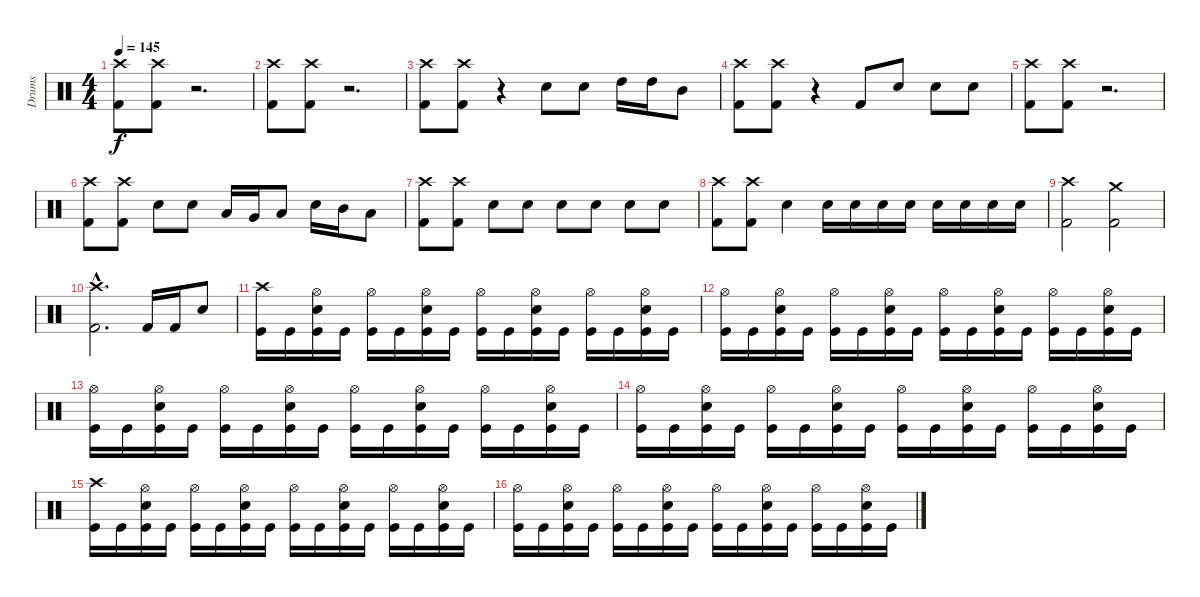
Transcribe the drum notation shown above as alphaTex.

\track ("Drums" "Drums") {instrument percussion}
\staff {score}
\articulation defaults
\ts (4 4)
\tempo 145
\clef neutral
\ks c
("Crash high (hit)" "Kick (hit) 2").8{dy f} ("Crash high (hit)" "Kick (hit) 2").8 r.2{d} |
("Crash high (hit)" "Kick (hit) 2").8 ("Crash high (hit)" "Kick (hit) 2").8 r.2{d} |
("Crash high (hit)" "Kick (hit) 2").8 ("Crash high (hit)" "Kick (hit) 2").8 r.4 "Snare (hit) 2".8 "Snare (hit) 2".8 "High Tom (hit)".16 "High Tom (hit)".16 "Mid Tom (hit)".8 |
("Crash high (hit)" "Kick (hit) 2").8 ("Crash high (hit)" "Kick (hit) 2").8 r.4 "Kick (hit) 2".8 "Snare (hit) 2".8 "Snare (hit) 2".8 "Snare (hit) 2".8 |
("Crash high (hit)" "Kick (hit) 2").8 ("Crash high (hit)" "Kick (hit) 2").8 r.2{d} |
("Crash high (hit)" "Kick (hit) 2").8 ("Crash high (hit)" "Kick (hit) 2").8 "Snare (hit) 2".8 "Snare (hit) 2".8 "Low Tom (hit)".16 "Very Low Tom (hit)".16 "Low Floor Tom (hit)".8 "Snare (hit) 2".16 "Mid Tom (hit)".16 "Low Tom (hit)".8 |
("Crash high (hit)" "Kick (hit) 2").8 ("Crash high (hit)" "Kick (hit) 2").8 "Snare (hit) 2".8 "Snare (hit) 2".8 "Snare (hit) 2".8 "Snare (hit) 2".8 "Snare (hit) 2".8 "Snare (hit) 2".8 |
("Crash high (hit)" "Kick (hit) 2").8 ("Crash high (hit)" "Kick (hit) 2").8 "Snare (hit) 2".4 "Snare (hit) 2".16 "Snare (hit) 2".16 "Snare (hit) 2".16 "Snare (hit) 2".16 "Snare (hit) 2".16 "Snare (hit) 2".16 "Snare (hit) 2".16 "Snare (hit) 2".16 |
("Crash high (hit)" "Kick (hit) 2").2 ("Crash medium (hit)" "Kick (hit) 2").2 |
("Crash high (hit)"{hac} "Kick (hit) 2"{hac}).2{d} "Kick (hit) 2".16 "Kick (hit) 2".16 "Snare (hit) 2".8 |
("Crash high (hit)" "Kick (hit)").16 "Kick (hit)".16 ("Hi-Hat (open)" "Snare (hit) 2" "Kick (hit)").16 "Kick (hit)".16 ("Hi-Hat (open)" "Kick (hit)").16 "Kick (hit)".16 ("Hi-Hat (open)" "Snare (hit) 2" "Kick (hit)").16 "Kick (hit)".16 ("Hi-Hat (open)" "Kick (hit)").16 "Kick (hit)".16 ("Hi-Hat (open)" "Snare (hit) 2" "Kick (hit)").16 "Kick (hit)".16 ("Hi-Hat (open)" "Kick (hit)").16 "Kick (hit)".16 ("Hi-Hat (open)" "Snare (hit) 2" "Kick (hit)").16 "Kick (hit)".16 |
("Hi-Hat (open)" "Kick (hit)").16 "Kick (hit)".16 ("Hi-Hat (open)" "Snare (hit) 2" "Kick (hit)").16 "Kick (hit)".16 ("Hi-Hat (open)" "Kick (hit)").16 "Kick (hit)".16 ("Hi-Hat (open)" "Snare (hit) 2" "Kick (hit)").16 "Kick (hit)".16 ("Hi-Hat (open)" "Kick (hit)").16 "Kick (hit)".16 ("Hi-Hat (open)" "Snare (hit) 2" "Kick (hit)").16 "Kick (hit)".16 ("Hi-Hat (open)" "Kick (hit)").16 "Kick (hit)".16 ("Hi-Hat (open)" "Snare (hit) 2" "Kick (hit)").16 "Kick (hit)".16 |
("Hi-Hat (open)" "Kick (hit)").16 "Kick (hit)".16 ("Hi-Hat (open)" "Snare (hit) 2" "Kick (hit)").16 "Kick (hit)".16 ("Hi-Hat (open)" "Kick (hit)").16 "Kick (hit)".16 ("Hi-Hat (open)" "Snare (hit) 2" "Kick (hit)").16 "Kick (hit)".16 ("Hi-Hat (open)" "Kick (hit)").16 "Kick (hit)".16 ("Hi-Hat (open)" "Snare (hit) 2" "Kick (hit)").16 "Kick (hit)".16 ("Hi-Hat (open)" "Kick (hit)").16 "Kick (hit)".16 ("Hi-Hat (open)" "Snare (hit) 2" "Kick (hit)").16 "Kick (hit)".16 |
("Hi-Hat (open)" "Kick (hit)").16 "Kick (hit)".16 ("Hi-Hat (open)" "Snare (hit) 2" "Kick (hit)").16 "Kick (hit)".16 ("Hi-Hat (open)" "Kick (hit)").16 "Kick (hit)".16 ("Hi-Hat (open)" "Snare (hit) 2" "Kick (hit)").16 "Kick (hit)".16 ("Hi-Hat (open)" "Kick (hit)").16 "Kick (hit)".16 ("Hi-Hat (open)" "Snare (hit) 2" "Kick (hit)").16 "Kick (hit)".16 ("Hi-Hat (open)" "Kick (hit)").16 "Kick (hit)".16 ("Hi-Hat (open)" "Snare (hit) 2" "Kick (hit)").16 "Kick (hit)".16 |
("Crash high (hit)" "Kick (hit)").16 "Kick (hit)".16 ("Hi-Hat (open)" "Snare (hit) 2" "Kick (hit)").16 "Kick (hit)".16 ("Hi-Hat (open)" "Kick (hit)").16 "Kick (hit)".16 ("Hi-Hat (open)" "Snare (hit) 2" "Kick (hit)").16 "Kick (hit)".16 ("Hi-Hat (open)" "Kick (hit)").16 "Kick (hit)".16 ("Hi-Hat (open)" "Snare (hit) 2" "Kick (hit)").16 "Kick (hit)".16 ("Hi-Hat (open)" "Kick (hit)").16 "Kick (hit)".16 ("Hi-Hat (open)" "Snare (hit) 2" "Kick (hit)").16 "Kick (hit)".16 |
("Hi-Hat (open)" "Kick (hit)").16 "Kick (hit)".16 ("Hi-Hat (open)" "Snare (hit) 2" "Kick (hit)").16 "Kick (hit)".16 ("Hi-Hat (open)" "Kick (hit)").16 "Kick (hit)".16 ("Hi-Hat (open)" "Snare (hit) 2" "Kick (hit)").16 "Kick (hit)".16 ("Hi-Hat (open)" "Kick (hit)").16 "Kick (hit)".16 ("Hi-Hat (open)" "Snare (hit) 2" "Kick (hit)").16 "Kick (hit)".16 ("Hi-Hat (open)" "Kick (hit)").16 "Kick (hit)".16 ("Hi-Hat (open)" "Snare (hit) 2" "Kick (hit)").16 "Kick (hit)".16
